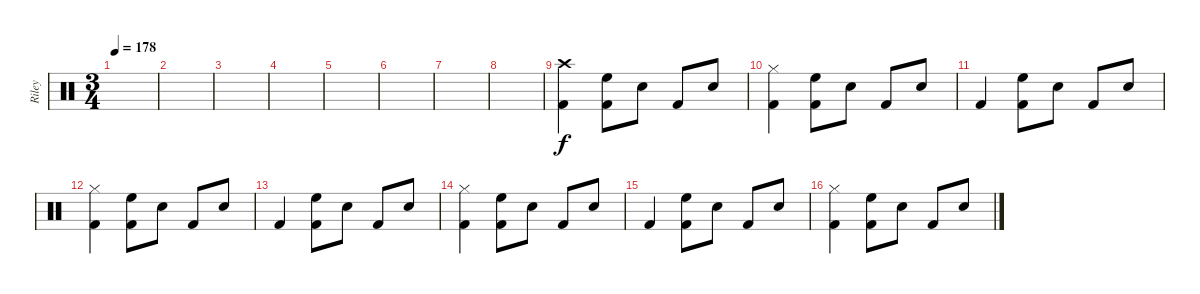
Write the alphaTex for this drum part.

\track ("Riley" "Riley") {instrument percussion}
\staff {score}
\articulation defaults
\ts (3 4)
\tempo 178
\clef neutral
\ks c
|
|
|
|
|
|
|
|
("Crash high (hit)" "Kick (hit) 2").4 ("High Floor Tom (hit)" "Kick (hit) 2").8 "Snare (hit) 2".8 "Kick (hit) 2".8 "Snare (hit) 2".8 |
("Hi-Hat (closed)" "Kick (hit) 2").4 ("High Floor Tom (hit)" "Kick (hit) 2").8 "Snare (hit) 2".8 "Kick (hit) 2".8 "Snare (hit) 2".8 |
"Kick (hit) 2".4 ("High Floor Tom (hit)" "Kick (hit) 2").8 "Snare (hit) 2".8 "Kick (hit) 2".8 "Snare (hit) 2".8 |
("Hi-Hat (closed)" "Kick (hit) 2").4 ("High Floor Tom (hit)" "Kick (hit) 2").8 "Snare (hit) 2".8 "Kick (hit) 2".8 "Snare (hit) 2".8 |
"Kick (hit) 2".4 ("High Floor Tom (hit)" "Kick (hit) 2").8 "Snare (hit) 2".8 "Kick (hit) 2".8 "Snare (hit) 2".8 |
("Hi-Hat (closed)" "Kick (hit) 2").4 ("High Floor Tom (hit)" "Kick (hit) 2").8 "Snare (hit) 2".8 "Kick (hit) 2".8 "Snare (hit) 2".8 |
"Kick (hit) 2".4 ("High Floor Tom (hit)" "Kick (hit) 2").8 "Snare (hit) 2".8 "Kick (hit) 2".8 "Snare (hit) 2".8 |
("Hi-Hat (closed)" "Kick (hit) 2").4 ("High Floor Tom (hit)" "Kick (hit) 2").8 "Snare (hit) 2".8 "Kick (hit) 2".8 "Snare (hit) 2".8
